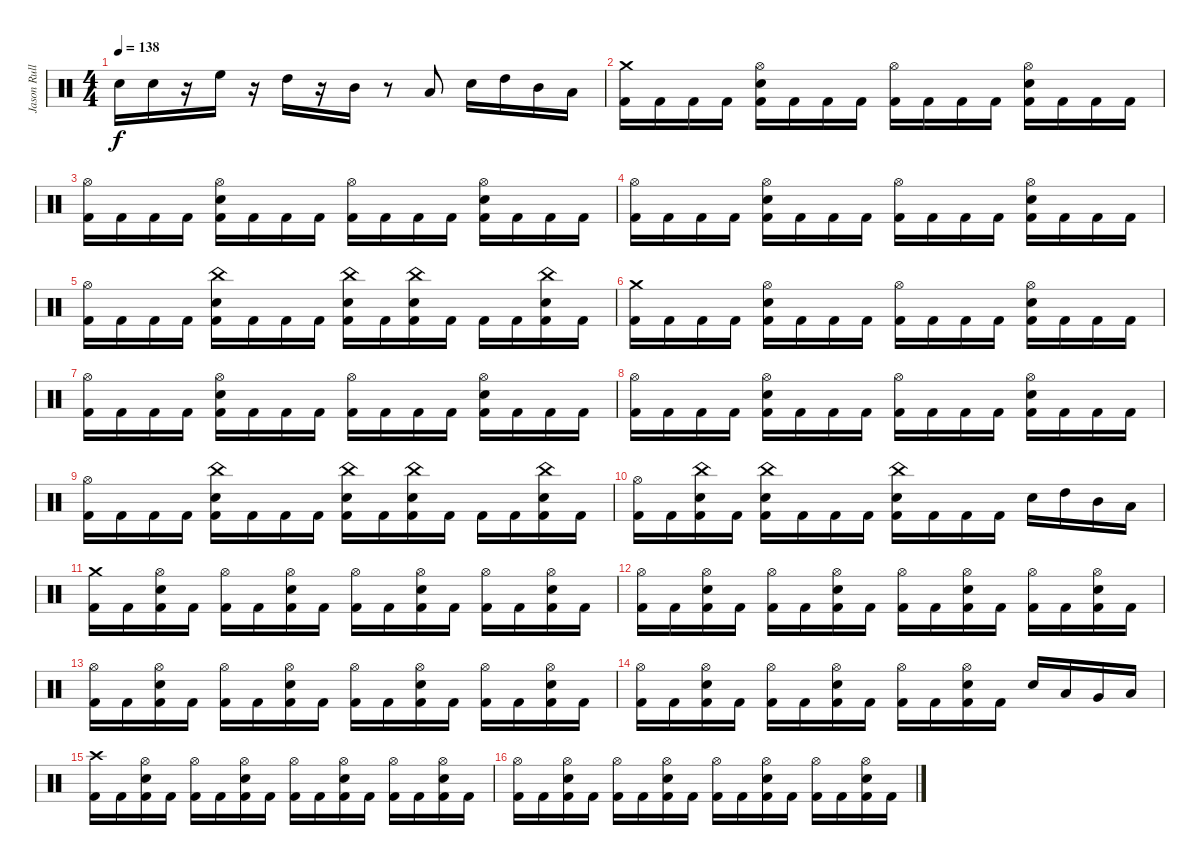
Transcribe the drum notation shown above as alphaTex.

\track ("Jason Rullo" "Jason Rull") {instrument percussion}
\staff {score}
\articulation defaults
\ts (4 4)
\tempo 138
\clef neutral
\ks c "Electric Snare (hit)".16{dy f} "Electric Snare (hit)".16
r.16 "High Floor Tom (hit)".16 r.16 "High Tom (hit)".16 r.16 "Mid Tom (hit)".16 r.8 "Low Tom (hit)".8 "Electric Snare (hit)".16 "High Tom (hit)".16 "Mid Tom (hit)".16 "Low Tom (hit)".16 |
("Kick (hit) 2" "Crash medium (hit)").16 "Kick (hit) 2".16 "Kick (hit) 2".16 "Kick (hit) 2".16 ("Hi-Hat (open)" "Electric Snare (hit)" "Kick (hit) 2").16 "Kick (hit) 2".16 "Kick (hit) 2".16 "Kick (hit) 2".16 ("Hi-Hat (open)" "Kick (hit) 2").16 "Kick (hit) 2".16 "Kick (hit) 2".16 "Kick (hit) 2".16 ("Hi-Hat (open)" "Electric Snare (hit)" "Kick (hit) 2").16 "Kick (hit) 2".16 "Kick (hit) 2".16 "Kick (hit) 2".16 |
("Hi-Hat (open)" "Kick (hit) 2").16 "Kick (hit) 2".16 "Kick (hit) 2".16 "Kick (hit) 2".16 ("Hi-Hat (open)" "Electric Snare (hit)" "Kick (hit) 2").16 "Kick (hit) 2".16 "Kick (hit) 2".16 "Kick (hit) 2".16 ("Hi-Hat (open)" "Kick (hit) 2").16 "Kick (hit) 2".16 "Kick (hit) 2".16 "Kick (hit) 2".16 ("Hi-Hat (open)" "Electric Snare (hit)" "Kick (hit) 2").16 "Kick (hit) 2".16 "Kick (hit) 2".16 "Kick (hit) 2".16 |
("Hi-Hat (open)" "Kick (hit) 2").16 "Kick (hit) 2".16 "Kick (hit) 2".16 "Kick (hit) 2".16 ("Hi-Hat (open)" "Electric Snare (hit)" "Kick (hit) 2").16 "Kick (hit) 2".16 "Kick (hit) 2".16 "Kick (hit) 2".16 ("Hi-Hat (open)" "Kick (hit) 2").16 "Kick (hit) 2".16 "Kick (hit) 2".16 "Kick (hit) 2".16 ("Hi-Hat (open)" "Electric Snare (hit)" "Kick (hit) 2").16 "Kick (hit) 2".16 "Kick (hit) 2".16 "Kick (hit) 2".16 |
("Hi-Hat (open)" "Kick (hit) 2").16 "Kick (hit) 2".16 "Kick (hit) 2".16 "Kick (hit) 2".16 ("China (hit)" "Electric Snare (hit)" "Kick (hit) 2").16 "Kick (hit) 2".16 "Kick (hit) 2".16 "Kick (hit) 2".16 ("China (hit)" "Electric Snare (hit)" "Kick (hit) 2").16 "Kick (hit) 2".16 ("China (hit)" "Electric Snare (hit)" "Kick (hit) 2").16 "Kick (hit) 2".16 "Kick (hit) 2".16 "Kick (hit) 2".16 ("China (hit)" "Electric Snare (hit)" "Kick (hit) 2").16 "Kick (hit) 2".16 |
("Kick (hit) 2" "Crash medium (hit)").16 "Kick (hit) 2".16 "Kick (hit) 2".16 "Kick (hit) 2".16 ("Hi-Hat (open)" "Electric Snare (hit)" "Kick (hit) 2").16 "Kick (hit) 2".16 "Kick (hit) 2".16 "Kick (hit) 2".16 ("Hi-Hat (open)" "Kick (hit) 2").16 "Kick (hit) 2".16 "Kick (hit) 2".16 "Kick (hit) 2".16 ("Hi-Hat (open)" "Electric Snare (hit)" "Kick (hit) 2").16 "Kick (hit) 2".16 "Kick (hit) 2".16 "Kick (hit) 2".16 |
("Hi-Hat (open)" "Kick (hit) 2").16 "Kick (hit) 2".16 "Kick (hit) 2".16 "Kick (hit) 2".16 ("Hi-Hat (open)" "Electric Snare (hit)" "Kick (hit) 2").16 "Kick (hit) 2".16 "Kick (hit) 2".16 "Kick (hit) 2".16 ("Hi-Hat (open)" "Kick (hit) 2").16 "Kick (hit) 2".16 "Kick (hit) 2".16 "Kick (hit) 2".16 ("Hi-Hat (open)" "Electric Snare (hit)" "Kick (hit) 2").16 "Kick (hit) 2".16 "Kick (hit) 2".16 "Kick (hit) 2".16 |
("Hi-Hat (open)" "Kick (hit) 2").16 "Kick (hit) 2".16 "Kick (hit) 2".16 "Kick (hit) 2".16 ("Hi-Hat (open)" "Electric Snare (hit)" "Kick (hit) 2").16 "Kick (hit) 2".16 "Kick (hit) 2".16 "Kick (hit) 2".16 ("Hi-Hat (open)" "Kick (hit) 2").16 "Kick (hit) 2".16 "Kick (hit) 2".16 "Kick (hit) 2".16 ("Hi-Hat (open)" "Electric Snare (hit)" "Kick (hit) 2").16 "Kick (hit) 2".16 "Kick (hit) 2".16 "Kick (hit) 2".16 |
("Hi-Hat (open)" "Kick (hit) 2").16 "Kick (hit) 2".16 "Kick (hit) 2".16 "Kick (hit) 2".16 ("China (hit)" "Electric Snare (hit)" "Kick (hit) 2").16 "Kick (hit) 2".16 "Kick (hit) 2".16 "Kick (hit) 2".16 ("China (hit)" "Electric Snare (hit)" "Kick (hit) 2").16 "Kick (hit) 2".16 ("China (hit)" "Electric Snare (hit)" "Kick (hit) 2").16 "Kick (hit) 2".16 "Kick (hit) 2".16 "Kick (hit) 2".16 ("China (hit)" "Electric Snare (hit)" "Kick (hit) 2").16 "Kick (hit) 2".16 |
("Hi-Hat (open)" "Kick (hit) 2").16 "Kick (hit) 2".16 ("China (hit)" "Electric Snare (hit)" "Kick (hit) 2").16 "Kick (hit) 2".16 ("China (hit)" "Electric Snare (hit)" "Kick (hit) 2").16 "Kick (hit) 2".16 "Kick (hit) 2".16 "Kick (hit) 2".16 ("China (hit)" "Electric Snare (hit)" "Kick (hit) 2").16 "Kick (hit) 2".16 "Kick (hit) 2".16 "Kick (hit) 2".16 "Electric Snare (hit)".16 "High Tom (hit)".16 "Mid Tom (hit)".16 "Low Tom (hit)".16 |
("Crash medium (hit)" "Kick (hit) 2").16 "Kick (hit) 2".16 ("Hi-Hat (open)" "Electric Snare (hit)" "Kick (hit) 2").16 "Kick (hit) 2".16 ("Hi-Hat (open)" "Kick (hit) 2").16 "Kick (hit) 2".16 ("Hi-Hat (open)" "Electric Snare (hit)" "Kick (hit) 2").16 "Kick (hit) 2".16 ("Hi-Hat (open)" "Kick (hit) 2").16 "Kick (hit) 2".16 ("Hi-Hat (open)" "Electric Snare (hit)" "Kick (hit) 2").16 "Kick (hit) 2".16 ("Hi-Hat (open)" "Kick (hit) 2").16 "Kick (hit) 2".16 ("Hi-Hat (open)" "Electric Snare (hit)" "Kick (hit) 2").16 "Kick (hit) 2".16 |
("Hi-Hat (open)" "Kick (hit) 2").16 "Kick (hit) 2".16 ("Hi-Hat (open)" "Electric Snare (hit)" "Kick (hit) 2").16 "Kick (hit) 2".16 ("Hi-Hat (open)" "Kick (hit) 2").16 "Kick (hit) 2".16 ("Hi-Hat (open)" "Electric Snare (hit)" "Kick (hit) 2").16 "Kick (hit) 2".16 ("Hi-Hat (open)" "Kick (hit) 2").16 "Kick (hit) 2".16 ("Hi-Hat (open)" "Electric Snare (hit)" "Kick (hit) 2").16 "Kick (hit) 2".16 ("Hi-Hat (open)" "Kick (hit) 2").16 "Kick (hit) 2".16 ("Hi-Hat (open)" "Electric Snare (hit)" "Kick (hit) 2").16 "Kick (hit) 2".16 |
("Hi-Hat (open)" "Kick (hit) 2").16 "Kick (hit) 2".16 ("Hi-Hat (open)" "Electric Snare (hit)" "Kick (hit) 2").16 "Kick (hit) 2".16 ("Hi-Hat (open)" "Kick (hit) 2").16 "Kick (hit) 2".16 ("Hi-Hat (open)" "Electric Snare (hit)" "Kick (hit) 2").16 "Kick (hit) 2".16 ("Hi-Hat (open)" "Kick (hit) 2").16 "Kick (hit) 2".16 ("Hi-Hat (open)" "Electric Snare (hit)" "Kick (hit) 2").16 "Kick (hit) 2".16 ("Hi-Hat (open)" "Kick (hit) 2").16 "Kick (hit) 2".16 ("Hi-Hat (open)" "Electric Snare (hit)" "Kick (hit) 2").16 "Kick (hit) 2".16 |
("Hi-Hat (open)" "Kick (hit) 2").16 "Kick (hit) 2".16 ("Hi-Hat (open)" "Electric Snare (hit)" "Kick (hit) 2").16 "Kick (hit) 2".16 ("Hi-Hat (open)" "Kick (hit) 2").16 "Kick (hit) 2".16 ("Hi-Hat (open)" "Electric Snare (hit)" "Kick (hit) 2").16 "Kick (hit) 2".16 ("Hi-Hat (open)" "Kick (hit) 2").16 "Kick (hit) 2".16 ("Hi-Hat (open)" "Electric Snare (hit)" "Kick (hit) 2").16 "Kick (hit) 2".16 "Electric Snare (hit)".16 "Low Tom (hit)".16 "Very Low Tom (hit)".16 "Low Floor Tom (hit)".16 |
("Crash high (hit)" "Kick (hit) 2").16 "Kick (hit) 2".16 ("Hi-Hat (open)" "Electric Snare (hit)" "Kick (hit) 2").16 "Kick (hit) 2".16 ("Hi-Hat (open)" "Kick (hit) 2").16 "Kick (hit) 2".16 ("Hi-Hat (open)" "Electric Snare (hit)" "Kick (hit) 2").16 "Kick (hit) 2".16 ("Hi-Hat (open)" "Kick (hit) 2").16 "Kick (hit) 2".16 ("Hi-Hat (open)" "Electric Snare (hit)" "Kick (hit) 2").16 "Kick (hit) 2".16 ("Hi-Hat (open)" "Kick (hit) 2").16 "Kick (hit) 2".16 ("Hi-Hat (open)" "Electric Snare (hit)" "Kick (hit) 2").16 "Kick (hit) 2".16 |
("Hi-Hat (open)" "Kick (hit) 2").16 "Kick (hit) 2".16 ("Hi-Hat (open)" "Electric Snare (hit)" "Kick (hit) 2").16 "Kick (hit) 2".16 ("Hi-Hat (open)" "Kick (hit) 2").16 "Kick (hit) 2".16 ("Hi-Hat (open)" "Electric Snare (hit)" "Kick (hit) 2").16 "Kick (hit) 2".16 ("Hi-Hat (open)" "Kick (hit) 2").16 "Kick (hit) 2".16 ("Hi-Hat (open)" "Electric Snare (hit)" "Kick (hit) 2").16 "Kick (hit) 2".16 ("Hi-Hat (open)" "Kick (hit) 2").16 "Kick (hit) 2".16 ("Hi-Hat (open)" "Electric Snare (hit)" "Kick (hit) 2").16 "Kick (hit) 2".16
